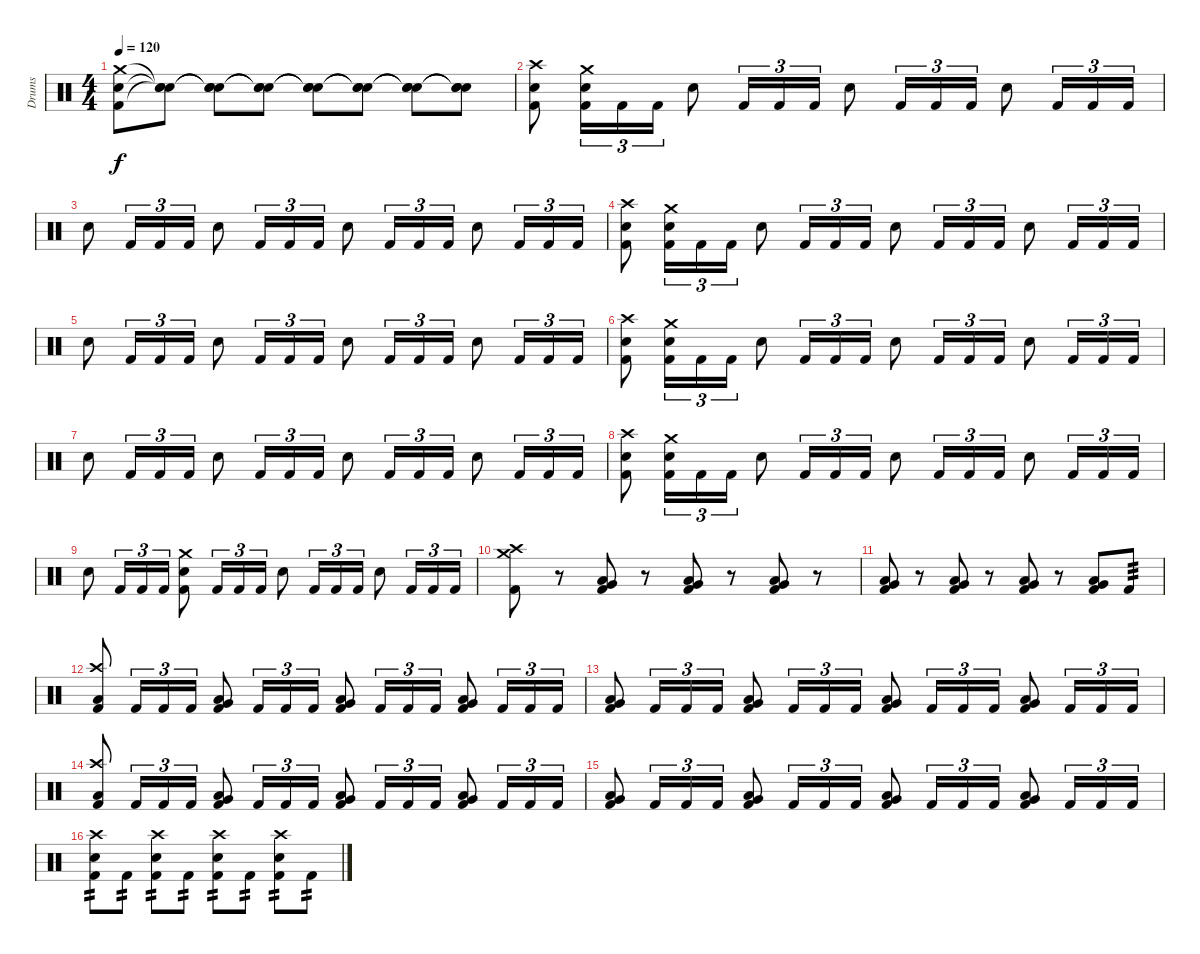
\track ("Drums" "Drums") {instrument percussion}
\staff {score}
\articulation defaults
\ts (4 4)
\tempo 120
\clef neutral
\ks c
("Crash medium (hit)" "Snare (hit) 2" "Kick (hit) 2").8{dy f} ("Snare (hit)"{t} "Snare (hit)"{t} "Snare (hit)"{t}).8 ("Snare (hit)"{t} "Snare (hit)"{t} "Snare (hit)"{t}).8 ("Snare (hit)"{t} "Snare (hit)"{t} "Snare (hit)"{t}).8 ("Snare (hit)"{t} "Snare (hit)"{t} "Snare (hit)"{t}).8 ("Snare (hit)"{t} "Snare (hit)"{t} "Snare (hit)"{t}).8 ("Snare (hit)"{t} "Snare (hit)"{t} "Snare (hit)"{t}).8 ("Snare (hit)"{t} "Snare (hit)"{t} "Snare (hit)"{t}).8 |
("Crash high (hit)" "Snare (hit) 2" "Kick (hit) 2").8 ("Crash medium (hit)" "Snare (hit) 2" "Kick (hit) 2").16{tu (3 2)} "Kick (hit) 2".16{tu (3 2)} "Kick (hit) 2".16{tu (3 2)} "Snare (hit) 2".8 "Kick (hit) 2".16{tu (3 2)} "Kick (hit) 2".16{tu (3 2)} "Kick (hit) 2".16{tu (3 2)} "Snare (hit) 2".8 "Kick (hit) 2".16{tu (3 2)} "Kick (hit) 2".16{tu (3 2)} "Kick (hit) 2".16{tu (3 2)} "Snare (hit) 2".8 "Kick (hit) 2".16{tu (3 2)} "Kick (hit) 2".16{tu (3 2)} "Kick (hit) 2".16{tu (3 2)} |
"Snare (hit) 2".8 "Kick (hit) 2".16{tu (3 2)} "Kick (hit) 2".16{tu (3 2)} "Kick (hit) 2".16{tu (3 2)} "Snare (hit) 2".8 "Kick (hit) 2".16{tu (3 2)} "Kick (hit) 2".16{tu (3 2)} "Kick (hit) 2".16{tu (3 2)} "Snare (hit) 2".8 "Kick (hit) 2".16{tu (3 2)} "Kick (hit) 2".16{tu (3 2)} "Kick (hit) 2".16{tu (3 2)} "Snare (hit) 2".8 "Kick (hit) 2".16{tu (3 2)} "Kick (hit) 2".16{tu (3 2)} "Kick (hit) 2".16{tu (3 2)} |
("Crash high (hit)" "Snare (hit) 2" "Kick (hit) 2").8 ("Crash medium (hit)" "Snare (hit) 2" "Kick (hit) 2").16{tu (3 2)} "Kick (hit) 2".16{tu (3 2)} "Kick (hit) 2".16{tu (3 2)} "Snare (hit) 2".8 "Kick (hit) 2".16{tu (3 2)} "Kick (hit) 2".16{tu (3 2)} "Kick (hit) 2".16{tu (3 2)} "Snare (hit) 2".8 "Kick (hit) 2".16{tu (3 2)} "Kick (hit) 2".16{tu (3 2)} "Kick (hit) 2".16{tu (3 2)} "Snare (hit) 2".8 "Kick (hit) 2".16{tu (3 2)} "Kick (hit) 2".16{tu (3 2)} "Kick (hit) 2".16{tu (3 2)} |
"Snare (hit) 2".8 "Kick (hit) 2".16{tu (3 2)} "Kick (hit) 2".16{tu (3 2)} "Kick (hit) 2".16{tu (3 2)} "Snare (hit) 2".8 "Kick (hit) 2".16{tu (3 2)} "Kick (hit) 2".16{tu (3 2)} "Kick (hit) 2".16{tu (3 2)} "Snare (hit) 2".8 "Kick (hit) 2".16{tu (3 2)} "Kick (hit) 2".16{tu (3 2)} "Kick (hit) 2".16{tu (3 2)} "Snare (hit) 2".8 "Kick (hit) 2".16{tu (3 2)} "Kick (hit) 2".16{tu (3 2)} "Kick (hit) 2".16{tu (3 2)} |
("Crash high (hit)" "Snare (hit) 2" "Kick (hit) 2").8 ("Crash medium (hit)" "Snare (hit) 2" "Kick (hit) 2").16{tu (3 2)} "Kick (hit) 2".16{tu (3 2)} "Kick (hit) 2".16{tu (3 2)} "Snare (hit) 2".8 "Kick (hit) 2".16{tu (3 2)} "Kick (hit) 2".16{tu (3 2)} "Kick (hit) 2".16{tu (3 2)} "Snare (hit) 2".8 "Kick (hit) 2".16{tu (3 2)} "Kick (hit) 2".16{tu (3 2)} "Kick (hit) 2".16{tu (3 2)} "Snare (hit) 2".8 "Kick (hit) 2".16{tu (3 2)} "Kick (hit) 2".16{tu (3 2)} "Kick (hit) 2".16{tu (3 2)} |
"Snare (hit) 2".8 "Kick (hit) 2".16{tu (3 2)} "Kick (hit) 2".16{tu (3 2)} "Kick (hit) 2".16{tu (3 2)} "Snare (hit) 2".8 "Kick (hit) 2".16{tu (3 2)} "Kick (hit) 2".16{tu (3 2)} "Kick (hit) 2".16{tu (3 2)} "Snare (hit) 2".8 "Kick (hit) 2".16{tu (3 2)} "Kick (hit) 2".16{tu (3 2)} "Kick (hit) 2".16{tu (3 2)} "Snare (hit) 2".8 "Kick (hit) 2".16{tu (3 2)} "Kick (hit) 2".16{tu (3 2)} "Kick (hit) 2".16{tu (3 2)} |
("Crash high (hit)" "Snare (hit) 2" "Kick (hit) 2").8 ("Crash medium (hit)" "Snare (hit) 2" "Kick (hit) 2").16{tu (3 2)} "Kick (hit) 2".16{tu (3 2)} "Kick (hit) 2".16{tu (3 2)} "Snare (hit) 2".8 "Kick (hit) 2".16{tu (3 2)} "Kick (hit) 2".16{tu (3 2)} "Kick (hit) 2".16{tu (3 2)} "Snare (hit) 2".8 "Kick (hit) 2".16{tu (3 2)} "Kick (hit) 2".16{tu (3 2)} "Kick (hit) 2".16{tu (3 2)} "Snare (hit) 2".8 "Kick (hit) 2".16{tu (3 2)} "Kick (hit) 2".16{tu (3 2)} "Kick (hit) 2".16{tu (3 2)} |
"Snare (hit) 2".8 "Kick (hit) 2".16{tu (3 2)} "Kick (hit) 2".16{tu (3 2)} "Kick (hit) 2".16{tu (3 2)} ("Crash medium (hit)" "Snare (hit) 2" "Kick (hit) 2").8 "Kick (hit) 2".16{tu (3 2)} "Kick (hit) 2".16{tu (3 2)} "Kick (hit) 2".16{tu (3 2)} "Snare (hit) 2".8 "Kick (hit) 2".16{tu (3 2)} "Kick (hit) 2".16{tu (3 2)} "Kick (hit) 2".16{tu (3 2)} "Snare (hit) 2".8 "Kick (hit) 2".16{tu (3 2)} "Kick (hit) 2".16{tu (3 2)} "Kick (hit) 2".16{tu (3 2)} |
("Crash medium (hit)" "Crash high (hit)" "Kick (hit) 2").8 r.8 ("Very Low Tom (hit)" "Low Floor Tom (hit)" "Kick (hit) 2").8 r.8 ("Very Low Tom (hit)" "Low Floor Tom (hit)" "Kick (hit) 2").8 r.8 ("Very Low Tom (hit)" "Low Floor Tom (hit)" "Kick (hit) 2").8 r.8 |
("Very Low Tom (hit)" "Low Floor Tom (hit)" "Kick (hit) 2").8 r.8 ("Very Low Tom (hit)" "Low Floor Tom (hit)" "Kick (hit) 2").8 r.8 ("Very Low Tom (hit)" "Low Floor Tom (hit)" "Kick (hit) 2").8 r.8 ("Very Low Tom (hit)" "Low Floor Tom (hit)" "Kick (hit) 2").8 "Kick (hit) 2".8{tp 3} |
("Crash high (hit)" "Low Floor Tom (hit)" "Kick (hit) 2").8 "Kick (hit) 2".16{tu (3 2)} "Kick (hit) 2".16{tu (3 2)} "Kick (hit) 2".16{tu (3 2)} ("Very Low Tom (hit)" "Low Floor Tom (hit)" "Kick (hit) 2").8 "Kick (hit) 2".16{tu (3 2)} "Kick (hit) 2".16{tu (3 2)} "Kick (hit) 2".16{tu (3 2)} ("Very Low Tom (hit)" "Low Floor Tom (hit)" "Kick (hit) 2").8 "Kick (hit) 2".16{tu (3 2)} "Kick (hit) 2".16{tu (3 2)} "Kick (hit) 2".16{tu (3 2)} ("Very Low Tom (hit)" "Low Floor Tom (hit)" "Kick (hit) 2").8 "Kick (hit) 2".16{tu (3 2)} "Kick (hit) 2".16{tu (3 2)} "Kick (hit) 2".16{tu (3 2)} |
("Very Low Tom (hit)" "Low Floor Tom (hit)" "Kick (hit) 2").8 "Kick (hit) 2".16{tu (3 2)} "Kick (hit) 2".16{tu (3 2)} "Kick (hit) 2".16{tu (3 2)} ("Very Low Tom (hit)" "Low Floor Tom (hit)" "Kick (hit) 2").8 "Kick (hit) 2".16{tu (3 2)} "Kick (hit) 2".16{tu (3 2)} "Kick (hit) 2".16{tu (3 2)} ("Very Low Tom (hit)" "Low Floor Tom (hit)" "Kick (hit) 2").8 "Kick (hit) 2".16{tu (3 2)} "Kick (hit) 2".16{tu (3 2)} "Kick (hit) 2".16{tu (3 2)} ("Very Low Tom (hit)" "Low Floor Tom (hit)" "Kick (hit) 2").8 "Kick (hit) 2".16{tu (3 2)} "Kick (hit) 2".16{tu (3 2)} "Kick (hit) 2".16{tu (3 2)} |
("Crash high (hit)" "Low Floor Tom (hit)" "Kick (hit) 2").8 "Kick (hit) 2".16{tu (3 2)} "Kick (hit) 2".16{tu (3 2)} "Kick (hit) 2".16{tu (3 2)} ("Very Low Tom (hit)" "Low Floor Tom (hit)" "Kick (hit) 2").8 "Kick (hit) 2".16{tu (3 2)} "Kick (hit) 2".16{tu (3 2)} "Kick (hit) 2".16{tu (3 2)} ("Very Low Tom (hit)" "Low Floor Tom (hit)" "Kick (hit) 2").8 "Kick (hit) 2".16{tu (3 2)} "Kick (hit) 2".16{tu (3 2)} "Kick (hit) 2".16{tu (3 2)} ("Very Low Tom (hit)" "Low Floor Tom (hit)" "Kick (hit) 2").8 "Kick (hit) 2".16{tu (3 2)} "Kick (hit) 2".16{tu (3 2)} "Kick (hit) 2".16{tu (3 2)} |
("Very Low Tom (hit)" "Low Floor Tom (hit)" "Kick (hit) 2").8 "Kick (hit) 2".16{tu (3 2)} "Kick (hit) 2".16{tu (3 2)} "Kick (hit) 2".16{tu (3 2)} ("Very Low Tom (hit)" "Low Floor Tom (hit)" "Kick (hit) 2").8 "Kick (hit) 2".16{tu (3 2)} "Kick (hit) 2".16{tu (3 2)} "Kick (hit) 2".16{tu (3 2)} ("Very Low Tom (hit)" "Low Floor Tom (hit)" "Kick (hit) 2").8 "Kick (hit) 2".16{tu (3 2)} "Kick (hit) 2".16{tu (3 2)} "Kick (hit) 2".16{tu (3 2)} ("Very Low Tom (hit)" "Low Floor Tom (hit)" "Kick (hit) 2").8 "Kick (hit) 2".16{tu (3 2)} "Kick (hit) 2".16{tu (3 2)} "Kick (hit) 2".16{tu (3 2)} |
("Crash high (hit)" "Snare (hit) 2" "Kick (hit) 2").8{tp 2} "Kick (hit) 2".8{tp 2} ("Crash high (hit)" "Snare (hit) 2" "Kick (hit) 2").8{tp 2} "Kick (hit) 2".8{tp 2} ("Crash high (hit)" "Snare (hit) 2" "Kick (hit) 2").8{tp 2} "Kick (hit) 2".8{tp 2} ("Crash high (hit)" "Snare (hit) 2" "Kick (hit) 2").8{tp 2} "Kick (hit) 2".8{tp 2}
